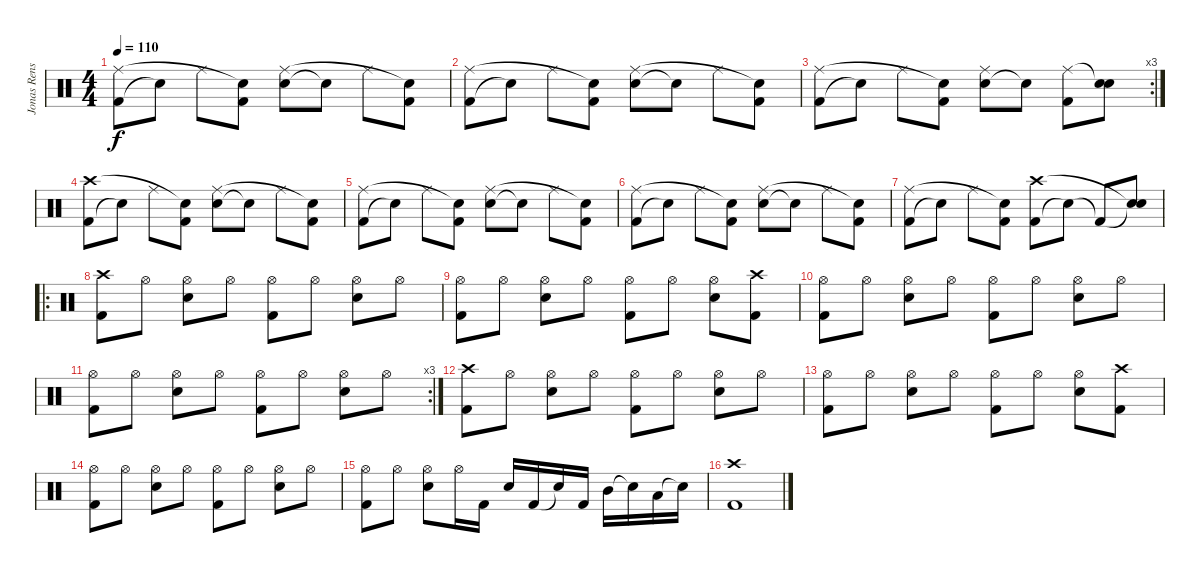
\track ("Jonas Renske" "Jonas Rens") {instrument percussion}
\staff {score}
\articulation defaults
\ts (4 4)
\tempo 110
\clef neutral
\ks c
("Kick (hit) 2" "Ride (middle)").8{dy f} "Snare (hit)"{t}.8 "Ride (middle)".8 ("Kick (hit) 2" "Snare (hit)"{t}).8 ("Electric Snare (hit)" "Ride (middle)").8 "Snare (hit)"{t}.8 "Ride (middle)".8 ("Kick (hit) 2" "Snare (hit)"{t}).8 |
("Kick (hit) 2" "Ride (middle)").8 "Snare (hit)"{t}.8 "Ride (middle)".8 ("Kick (hit) 2" "Snare (hit)"{t}).8 ("Electric Snare (hit)" "Ride (middle)").8 "Snare (hit)"{t}.8 "Ride (middle)".8 ("Kick (hit) 2" "Snare (hit)"{t}).8 |
\rc 3
("Kick (hit) 2" "Ride (middle)").8 "Snare (hit)"{t}.8 "Ride (middle)".8 ("Kick (hit) 2" "Snare (hit)"{t}).8 ("Electric Snare (hit)" "Ride (middle)").8 "Snare (hit)"{t}.8 ("Kick (hit) 2" "Ride (middle)").8 ("Electric Snare (hit)" "Snare (hit)"{t}).8 |
("Kick (hit) 2" "Crash high (hit)").8 "Snare (hit)"{t}.8 "Ride (middle)".8 ("Kick (hit) 2" "Snare (hit)"{t}).8 ("Electric Snare (hit)" "Ride (middle)").8 "Snare (hit)"{t}.8 "Ride (middle)".8 ("Kick (hit) 2" "Snare (hit)"{t}).8 |
("Kick (hit) 2" "Ride (middle)").8 "Snare (hit)"{t}.8 "Ride (middle)".8 ("Kick (hit) 2" "Snare (hit)"{t}).8 ("Electric Snare (hit)" "Ride (middle)").8 "Snare (hit)"{t}.8 "Ride (middle)".8 ("Kick (hit) 2" "Snare (hit)"{t}).8 |
("Kick (hit) 2" "Ride (middle)").8 "Snare (hit)"{t}.8 "Ride (middle)".8 ("Kick (hit) 2" "Snare (hit)"{t}).8 ("Electric Snare (hit)" "Ride (middle)").8 "Snare (hit)"{t}.8 "Ride (middle)".8 ("Kick (hit) 2" "Snare (hit)"{t}).8 |
("Kick (hit) 2" "Ride (middle)").8 "Snare (hit)"{t}.8 "Ride (middle)".8 ("Kick (hit) 2" "Snare (hit)"{t}).8 ("Kick (hit) 2" "Crash high (hit)").8 "Snare (hit)"{t}.8 "Kick (hit) 2"{t}.8 ("Electric Snare (hit)"{t} "Snare (hit)"{t}).8 |
\ro
("Kick (hit) 2" "Crash high (hit)").8 "Hi-Hat (open)".8 ("Electric Snare (hit)" "Hi-Hat (open)").8 "Hi-Hat (open)".8 ("Kick (hit) 2" "Hi-Hat (open)").8 "Hi-Hat (open)".8 ("Electric Snare (hit)" "Hi-Hat (open)").8 "Hi-Hat (open)".8 |
("Kick (hit) 2" "Hi-Hat (open)").8 "Hi-Hat (open)".8 ("Electric Snare (hit)" "Hi-Hat (open)").8 "Hi-Hat (open)".8 ("Kick (hit) 2" "Hi-Hat (open)").8 "Hi-Hat (open)".8 ("Electric Snare (hit)" "Hi-Hat (open)").8 ("Kick (hit) 2" "Crash high (hit)").8 |
("Kick (hit) 2" "Hi-Hat (open)").8 "Hi-Hat (open)".8 ("Electric Snare (hit)" "Hi-Hat (open)").8 "Hi-Hat (open)".8 ("Kick (hit) 2" "Hi-Hat (open)").8 "Hi-Hat (open)".8 ("Electric Snare (hit)" "Hi-Hat (open)").8 "Hi-Hat (open)".8 |
\rc 3
("Kick (hit) 2" "Hi-Hat (open)").8 "Hi-Hat (open)".8 ("Electric Snare (hit)" "Hi-Hat (open)").8 "Hi-Hat (open)".8 ("Kick (hit) 2" "Hi-Hat (open)").8 "Hi-Hat (open)".8 ("Electric Snare (hit)" "Hi-Hat (open)").8 "Hi-Hat (open)".8 |
("Kick (hit) 2" "Crash high (hit)").8 "Hi-Hat (open)".8 ("Electric Snare (hit)" "Hi-Hat (open)").8 "Hi-Hat (open)".8 ("Kick (hit) 2" "Hi-Hat (open)").8 "Hi-Hat (open)".8 ("Electric Snare (hit)" "Hi-Hat (open)").8 "Hi-Hat (open)".8 |
("Kick (hit) 2" "Hi-Hat (open)").8 "Hi-Hat (open)".8 ("Electric Snare (hit)" "Hi-Hat (open)").8 "Hi-Hat (open)".8 ("Kick (hit) 2" "Hi-Hat (open)").8 "Hi-Hat (open)".8 ("Electric Snare (hit)" "Hi-Hat (open)").8 ("Kick (hit) 2" "Crash high (hit)").8 |
("Kick (hit) 2" "Hi-Hat (open)").8 "Hi-Hat (open)".8 ("Electric Snare (hit)" "Hi-Hat (open)").8 "Hi-Hat (open)".8 ("Kick (hit) 2" "Hi-Hat (open)").8 "Hi-Hat (open)".8 ("Electric Snare (hit)" "Hi-Hat (open)").8 "Hi-Hat (open)".8 |
("Kick (hit) 2" "Hi-Hat (open)").8 "Hi-Hat (open)".8 ("Electric Snare (hit)" "Hi-Hat (open)").8 "Hi-Hat (open)".16 "Kick (hit) 2".16 "Electric Snare (hit)".16 "Kick (hit) 2".16 "Snare (hit)"{t}.16 "Kick (hit) 2".16 "Mid Tom (hit)".16 "Snare (hit)"{t}.16 "Low Tom (hit)".16 "Snare (hit)"{t}.16 |
("Kick (hit) 2" "Crash high (hit)").1{volume 0}
